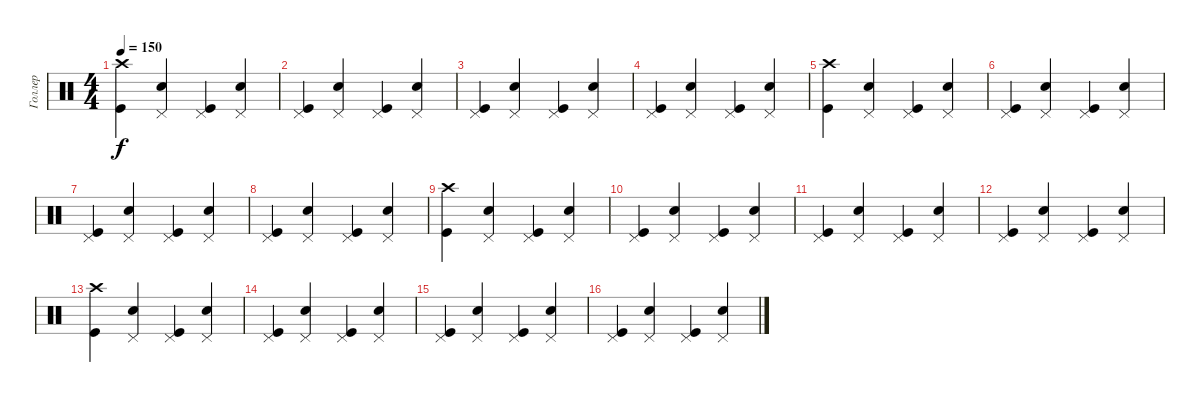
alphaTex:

\track ("Голлер" "Голлер") {instrument percussion}
\staff {score}
\articulation defaults
\ts (4 4)
\tempo 150
\clef neutral
\ks c
("Crash high (hit)" "Kick (hit)").4{dy f} ("Pedal Hi-Hat (hit)" "Snare (hit) 2").4 ("Pedal Hi-Hat (hit)" "Kick (hit)").4 ("Pedal Hi-Hat (hit)" "Snare (hit) 2").4 |
("Pedal Hi-Hat (hit)" "Kick (hit)").4 ("Pedal Hi-Hat (hit)" "Snare (hit) 2").4 ("Pedal Hi-Hat (hit)" "Kick (hit)").4 ("Pedal Hi-Hat (hit)" "Snare (hit) 2").4 |
("Pedal Hi-Hat (hit)" "Kick (hit)").4 ("Pedal Hi-Hat (hit)" "Snare (hit) 2").4 ("Pedal Hi-Hat (hit)" "Kick (hit)").4 ("Pedal Hi-Hat (hit)" "Snare (hit) 2").4 |
("Pedal Hi-Hat (hit)" "Kick (hit)").4 ("Pedal Hi-Hat (hit)" "Snare (hit) 2").4 ("Pedal Hi-Hat (hit)" "Kick (hit)").4 ("Pedal Hi-Hat (hit)" "Snare (hit) 2").4 |
("Crash high (hit)" "Kick (hit)").4 ("Pedal Hi-Hat (hit)" "Snare (hit) 2").4 ("Pedal Hi-Hat (hit)" "Kick (hit)").4 ("Pedal Hi-Hat (hit)" "Snare (hit) 2").4 |
("Pedal Hi-Hat (hit)" "Kick (hit)").4 ("Pedal Hi-Hat (hit)" "Snare (hit) 2").4 ("Pedal Hi-Hat (hit)" "Kick (hit)").4 ("Pedal Hi-Hat (hit)" "Snare (hit) 2").4 |
("Pedal Hi-Hat (hit)" "Kick (hit)").4 ("Pedal Hi-Hat (hit)" "Snare (hit) 2").4 ("Pedal Hi-Hat (hit)" "Kick (hit)").4 ("Pedal Hi-Hat (hit)" "Snare (hit) 2").4 |
("Pedal Hi-Hat (hit)" "Kick (hit)").4 ("Pedal Hi-Hat (hit)" "Snare (hit) 2").4 ("Pedal Hi-Hat (hit)" "Kick (hit)").4 ("Pedal Hi-Hat (hit)" "Snare (hit) 2").4 |
("Crash high (hit)" "Kick (hit)").4 ("Pedal Hi-Hat (hit)" "Snare (hit) 2").4 ("Pedal Hi-Hat (hit)" "Kick (hit)").4 ("Pedal Hi-Hat (hit)" "Snare (hit) 2").4 |
("Pedal Hi-Hat (hit)" "Kick (hit)").4 ("Pedal Hi-Hat (hit)" "Snare (hit) 2").4 ("Pedal Hi-Hat (hit)" "Kick (hit)").4 ("Pedal Hi-Hat (hit)" "Snare (hit) 2").4 |
("Pedal Hi-Hat (hit)" "Kick (hit)").4 ("Pedal Hi-Hat (hit)" "Snare (hit) 2").4 ("Pedal Hi-Hat (hit)" "Kick (hit)").4 ("Pedal Hi-Hat (hit)" "Snare (hit) 2").4 |
("Pedal Hi-Hat (hit)" "Kick (hit)").4 ("Pedal Hi-Hat (hit)" "Snare (hit) 2").4 ("Pedal Hi-Hat (hit)" "Kick (hit)").4 ("Pedal Hi-Hat (hit)" "Snare (hit) 2").4 |
("Crash high (hit)" "Kick (hit)").4 ("Pedal Hi-Hat (hit)" "Snare (hit) 2").4 ("Pedal Hi-Hat (hit)" "Kick (hit)").4 ("Pedal Hi-Hat (hit)" "Snare (hit) 2").4 |
("Pedal Hi-Hat (hit)" "Kick (hit)").4 ("Pedal Hi-Hat (hit)" "Snare (hit) 2").4 ("Pedal Hi-Hat (hit)" "Kick (hit)").4 ("Pedal Hi-Hat (hit)" "Snare (hit) 2").4 |
("Pedal Hi-Hat (hit)" "Kick (hit)").4 ("Pedal Hi-Hat (hit)" "Snare (hit) 2").4 ("Pedal Hi-Hat (hit)" "Kick (hit)").4 ("Pedal Hi-Hat (hit)" "Snare (hit) 2").4 |
("Pedal Hi-Hat (hit)" "Kick (hit)").4 ("Pedal Hi-Hat (hit)" "Snare (hit) 2").4 ("Pedal Hi-Hat (hit)" "Kick (hit)").4 ("Pedal Hi-Hat (hit)" "Snare (hit) 2").4
